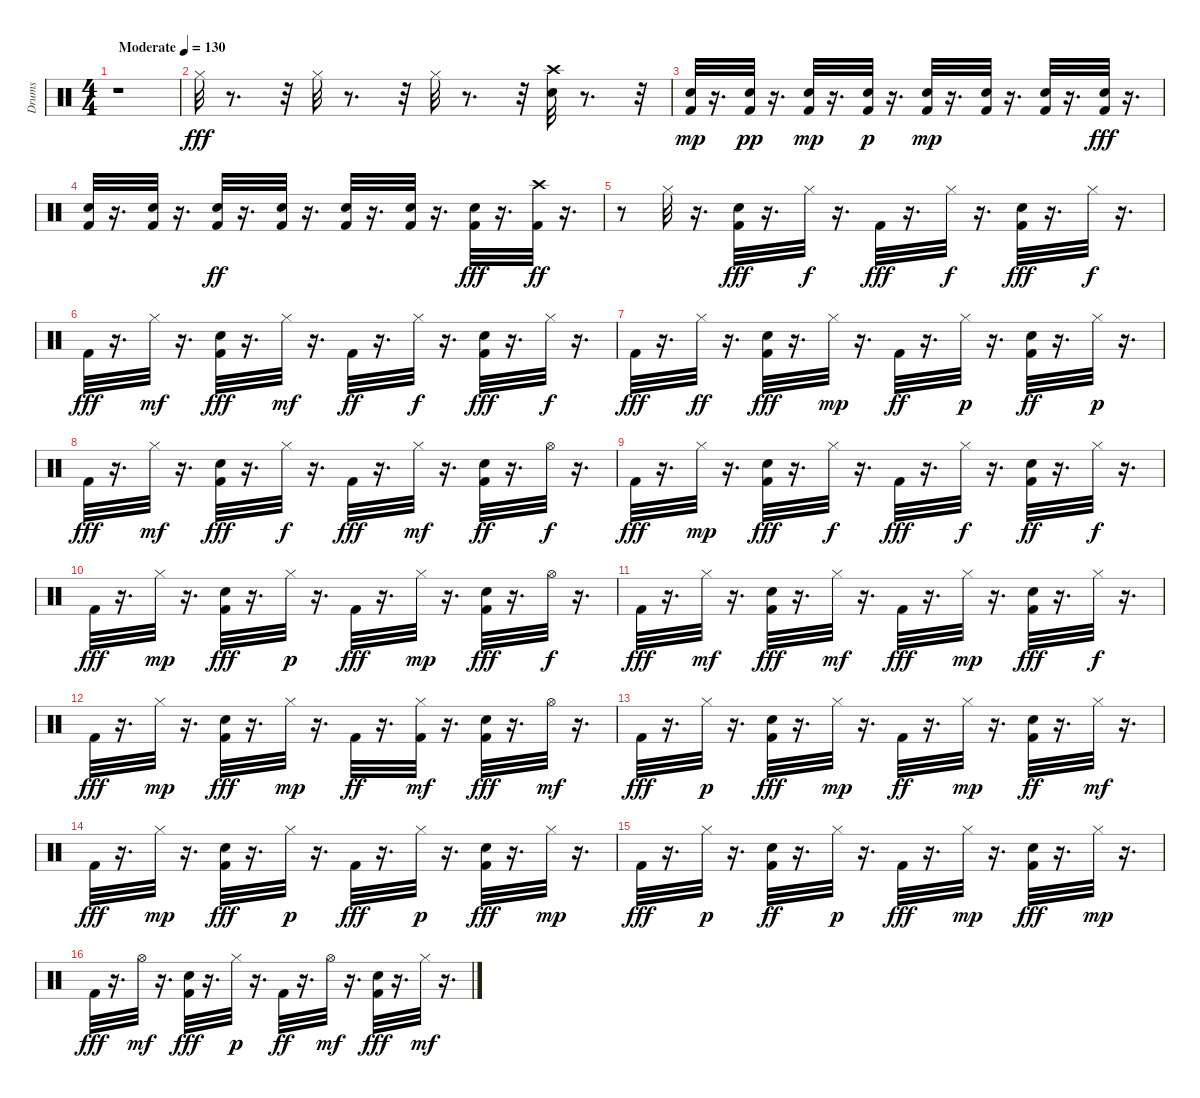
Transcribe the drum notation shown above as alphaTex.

\track ("Drums               " "Drums     ") {instrument percussion}
\staff {score}
\articulation defaults
\ts (4 4)
\tempo (130 "Moderate")
\clef neutral
\ks c
r.1{dy fff} |
"Hi-Hat (closed)".32 r.8{d} r.32 "Hi-Hat (closed)".32 r.8{d} r.32 "Hi-Hat (closed)".32 r.8{d} r.32 ("Snare (hit) 2" "Crash high (hit)").32 r.8{d} r.32 |
("Kick (hit) 2" "Snare (hit) 2").32{dy mp} r.16{d} ("Kick (hit) 2" "Snare (hit) 2").32{dy pp} r.16{d} ("Kick (hit) 2" "Snare (hit) 2").32{dy mp} r.16{d} ("Kick (hit) 2" "Snare (hit) 2").32{dy p} r.16{d} ("Kick (hit) 2" "Snare (hit) 2").32{dy mp} r.16{d} ("Kick (hit) 2" "Snare (hit) 2").32 r.16{d} ("Kick (hit) 2" "Snare (hit) 2").32 r.16{d} ("Kick (hit) 2" "Snare (hit) 2").32{dy fff} r.16{d} |
("Kick (hit) 2" "Snare (hit) 2").32 r.16{d} ("Kick (hit) 2" "Snare (hit) 2").32 r.16{d} ("Kick (hit) 2" "Snare (hit) 2").32{dy ff} r.16{d} ("Kick (hit) 2" "Snare (hit) 2").32 r.16{d} ("Kick (hit) 2" "Snare (hit) 2").32 r.16{d} ("Kick (hit) 2" "Snare (hit) 2").32 r.16{d} ("Kick (hit) 2" "Snare (hit) 2").32{dy fff} r.16{d} ("Kick (hit) 2" "Crash high (hit)").32{dy ff} r.16{d} |
r.8 "Hi-Hat (closed)".32 r.16{d} ("Kick (hit) 2" "Snare (hit) 2").32{dy fff} r.16{d} "Hi-Hat (closed)".32{dy f} r.16{d} "Kick (hit) 2".32{dy fff} r.16{d} "Hi-Hat (closed)".32{dy f} r.16{d} ("Kick (hit) 2" "Snare (hit) 2").32{dy fff} r.16{d} "Hi-Hat (closed)".32{dy f} r.16{d} |
"Kick (hit) 2".32{dy fff} r.16{d} "Hi-Hat (closed)".32{dy mf} r.16{d} ("Kick (hit) 2" "Snare (hit) 2").32{dy fff} r.16{d} "Hi-Hat (closed)".32{dy mf} r.16{d} "Kick (hit) 2".32{dy ff} r.16{d} "Hi-Hat (closed)".32{dy f} r.16{d} ("Kick (hit) 2" "Snare (hit) 2").32{dy fff} r.16{d} "Hi-Hat (closed)".32{dy f} r.16{d} |
"Kick (hit) 2".32{dy fff} r.16{d} "Hi-Hat (closed)".32{dy ff} r.16{d} ("Kick (hit) 2" "Snare (hit) 2").32{dy fff} r.16{d} "Hi-Hat (closed)".32{dy mp} r.16{d} "Kick (hit) 2".32{dy ff} r.16{d} "Hi-Hat (closed)".32{dy p} r.16{d} ("Kick (hit) 2" "Snare (hit) 2").32{dy ff} r.16{d} "Hi-Hat (closed)".32{dy p} r.16{d} |
"Kick (hit) 2".32{dy fff} r.16{d} "Hi-Hat (closed)".32{dy mf} r.16{d} ("Kick (hit) 2" "Snare (hit) 2").32{dy fff} r.16{d} "Hi-Hat (closed)".32{dy f} r.16{d} "Kick (hit) 2".32{dy fff} r.16{d} "Hi-Hat (closed)".32{dy mf} r.16{d} ("Kick (hit) 2" "Snare (hit) 2").32{dy ff} r.16{d} "Hi-Hat (open)".32{dy f} r.16{d} |
"Kick (hit) 2".32{dy fff} r.16{d} "Hi-Hat (closed)".32{dy mp} r.16{d} ("Kick (hit) 2" "Snare (hit) 2").32{dy fff} r.16{d} "Hi-Hat (closed)".32{dy f} r.16{d} "Kick (hit) 2".32{dy fff} r.16{d} "Hi-Hat (closed)".32{dy f} r.16{d} ("Kick (hit) 2" "Snare (hit) 2").32{dy ff} r.16{d} "Hi-Hat (closed)".32{dy f} r.16{d} |
"Kick (hit) 2".32{dy fff} r.16{d} "Hi-Hat (closed)".32{dy mp} r.16{d} ("Kick (hit) 2" "Snare (hit) 2").32{dy fff} r.16{d} "Hi-Hat (closed)".32{dy p} r.16{d} "Kick (hit) 2".32{dy fff} r.16{d} "Hi-Hat (closed)".32{dy mp} r.16{d} ("Kick (hit) 2" "Snare (hit) 2").32{dy fff} r.16{d} "Hi-Hat (open)".32{dy f} r.16{d} |
"Kick (hit) 2".32{dy fff} r.16{d} "Hi-Hat (closed)".32{dy mf} r.16{d} ("Kick (hit) 2" "Snare (hit) 2").32{dy fff} r.16{d} "Hi-Hat (closed)".32{dy mf} r.16{d} "Kick (hit) 2".32{dy fff} r.16{d} "Hi-Hat (closed)".32{dy mp} r.16{d} ("Kick (hit) 2" "Snare (hit) 2").32{dy fff} r.16{d} "Hi-Hat (closed)".32{dy f} r.16{d} |
"Kick (hit) 2".32{dy fff} r.16{d} "Hi-Hat (closed)".32{dy mp} r.16{d} ("Kick (hit) 2" "Snare (hit) 2").32{dy fff} r.16{d} "Hi-Hat (closed)".32{dy mp} r.16{d} "Kick (hit) 2".32{dy ff} r.16{d} ("Kick (hit) 2" "Hi-Hat (closed)").32{dy mf} r.16{d} ("Kick (hit) 2" "Snare (hit) 2").32{dy fff} r.16{d} "Hi-Hat (open)".32{dy mf} r.16{d} |
"Kick (hit) 2".32{dy fff} r.16{d} "Hi-Hat (closed)".32{dy p} r.16{d} ("Kick (hit) 2" "Snare (hit) 2").32{dy fff} r.16{d} "Hi-Hat (closed)".32{dy mp} r.16{d} "Kick (hit) 2".32{dy ff} r.16{d} "Hi-Hat (closed)".32{dy mp} r.16{d} ("Kick (hit) 2" "Snare (hit) 2").32{dy ff} r.16{d} "Hi-Hat (closed)".32{dy mf} r.16{d} |
"Kick (hit) 2".32{dy fff} r.16{d} "Hi-Hat (closed)".32{dy mp} r.16{d} ("Kick (hit) 2" "Snare (hit) 2").32{dy fff} r.16{d} "Hi-Hat (closed)".32{dy p} r.16{d} "Kick (hit) 2".32{dy fff} r.16{d} "Hi-Hat (closed)".32{dy p} r.16{d} ("Kick (hit) 2" "Snare (hit) 2").32{dy fff} r.16{d} "Hi-Hat (closed)".32{dy mp} r.16{d} |
"Kick (hit) 2".32{dy fff} r.16{d} "Hi-Hat (closed)".32{dy p} r.16{d} ("Kick (hit) 2" "Snare (hit) 2").32{dy ff} r.16{d} "Hi-Hat (closed)".32{dy p} r.16{d} "Kick (hit) 2".32{dy fff} r.16{d} "Hi-Hat (closed)".32{dy mp} r.16{d} ("Kick (hit) 2" "Snare (hit) 2").32{dy fff} r.16{d} "Hi-Hat (closed)".32{dy mp} r.16{d} |
"Kick (hit) 2".32{dy fff} r.16{d} "Hi-Hat (open)".32{dy mf} r.16{d} ("Kick (hit) 2" "Snare (hit) 2").32{dy fff} r.16{d} "Hi-Hat (closed)".32{dy p} r.16{d} "Kick (hit) 2".32{dy ff} r.16{d} "Hi-Hat (open)".32{dy mf} r.16{d} ("Kick (hit) 2" "Snare (hit) 2").32{dy fff} r.16{d} "Hi-Hat (closed)".32{dy mf} r.16{d}
